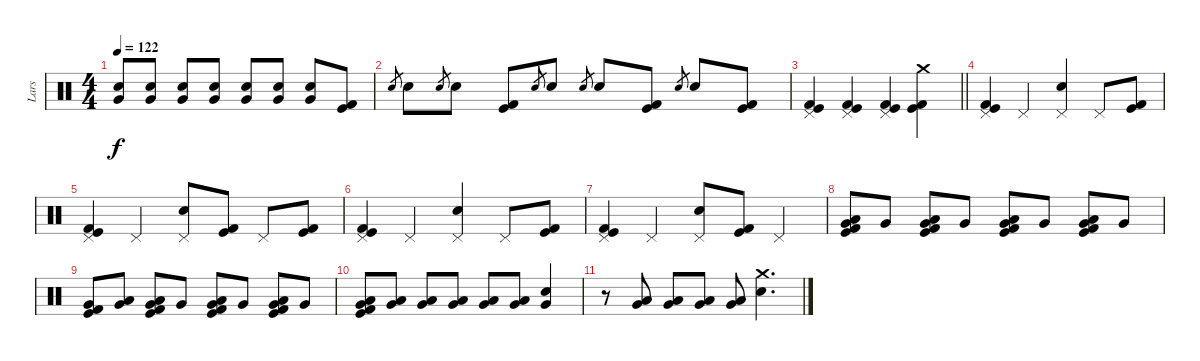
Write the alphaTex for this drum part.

\track ("Lars" "Lars") {instrument percussion}
\staff {score}
\articulation defaults
\ts (4 4)
\tempo 122
\clef neutral
\ks aminor
("Electric Snare (hit)" "Very Low Tom (hit)").8{dy f} ("Electric Snare (hit)" "Very Low Tom (hit)").8 ("Electric Snare (hit)" "Very Low Tom (hit)").8 ("Electric Snare (hit)" "Very Low Tom (hit)").8 ("Electric Snare (hit)" "Very Low Tom (hit)").8 ("Electric Snare (hit)" "Very Low Tom (hit)").8 ("Electric Snare (hit)" "Very Low Tom (hit)").8 ("Kick (hit)" "Kick (hit) 2").8 |
"Electric Snare (hit)".8{gr} "Electric Snare (hit)".8 "Electric Snare (hit)".8{gr} "Electric Snare (hit)".8 ("Kick (hit)" "Kick (hit) 2").8 "Electric Snare (hit)".8{gr} "Electric Snare (hit)".8 "Electric Snare (hit)".8{gr} "Electric Snare (hit)".8 ("Kick (hit)" "Kick (hit) 2").8 "Electric Snare (hit)".8{gr} "Electric Snare (hit)".8 ("Kick (hit)" "Kick (hit) 2").8 |
\barLineRight lightlight
("Pedal Hi-Hat (hit)" "Kick (hit)" "Kick (hit) 2").4 ("Pedal Hi-Hat (hit)" "Kick (hit)" "Kick (hit) 2").4 ("Pedal Hi-Hat (hit)" "Kick (hit)" "Kick (hit) 2").4 ("Crash medium (hit)" "Kick (hit)" "Kick (hit) 2").4 |
("Pedal Hi-Hat (hit)" "Kick (hit)" "Kick (hit) 2").4 "Pedal Hi-Hat (hit)".4 ("Pedal Hi-Hat (hit)" "Electric Snare (hit)").4 "Pedal Hi-Hat (hit)".8 ("Kick (hit)" "Kick (hit) 2").8 |
("Pedal Hi-Hat (hit)" "Kick (hit)" "Kick (hit) 2").4 "Pedal Hi-Hat (hit)".4 ("Pedal Hi-Hat (hit)" "Electric Snare (hit)").8 ("Kick (hit)" "Kick (hit) 2").8 "Pedal Hi-Hat (hit)".8 ("Kick (hit)" "Kick (hit) 2").8 |
("Pedal Hi-Hat (hit)" "Kick (hit)" "Kick (hit) 2").4 "Pedal Hi-Hat (hit)".4 ("Pedal Hi-Hat (hit)" "Electric Snare (hit)").4 "Pedal Hi-Hat (hit)".8 ("Kick (hit)" "Kick (hit) 2").8 |
("Pedal Hi-Hat (hit)" "Kick (hit)" "Kick (hit) 2").4 "Pedal Hi-Hat (hit)".4 ("Pedal Hi-Hat (hit)" "Electric Snare (hit)").8 ("Kick (hit)" "Kick (hit) 2").8 "Pedal Hi-Hat (hit)".4 |
("Very Low Tom (hit)" "Low Tom (hit)" "Kick (hit)" "Kick (hit) 2").8 "Very Low Tom (hit)".8 ("Very Low Tom (hit)" "Low Tom (hit)" "Kick (hit)" "Kick (hit) 2").8 "Very Low Tom (hit)".8 ("Very Low Tom (hit)" "Low Tom (hit)" "Kick (hit)" "Kick (hit) 2").8 "Very Low Tom (hit)".8 ("Very Low Tom (hit)" "Low Tom (hit)" "Kick (hit)" "Kick (hit) 2").8 "Very Low Tom (hit)".8 |
("Very Low Tom (hit)" "Kick (hit)" "Kick (hit) 2").8 ("Very Low Tom (hit)" "Low Tom (hit)").8 ("Very Low Tom (hit)" "Low Tom (hit)" "Kick (hit)" "Kick (hit) 2").8 "Very Low Tom (hit)".8 ("Very Low Tom (hit)" "Low Tom (hit)" "Kick (hit)" "Kick (hit) 2").8 "Very Low Tom (hit)".8 ("Very Low Tom (hit)" "Low Tom (hit)" "Kick (hit)" "Kick (hit) 2").8 "Very Low Tom (hit)".8 |
("Low Tom (hit)" "Very Low Tom (hit)" "Kick (hit)" "Kick (hit) 2").8 ("Low Tom (hit)" "Very Low Tom (hit)").8 ("Low Tom (hit)" "Very Low Tom (hit)").8 ("Low Tom (hit)" "Very Low Tom (hit)").8 ("Low Tom (hit)" "Very Low Tom (hit)").8 ("Low Tom (hit)" "Very Low Tom (hit)").8 ("Electric Snare (hit)" "Very Low Tom (hit)").4 |
r.8 ("Low Tom (hit)" "Very Low Tom (hit)").8 ("Low Tom (hit)" "Very Low Tom (hit)").8 ("Low Tom (hit)" "Very Low Tom (hit)").8 ("Low Tom (hit)" "Very Low Tom (hit)").8 ("Crash medium (hit)" "Electric Snare (hit)").4{d}
